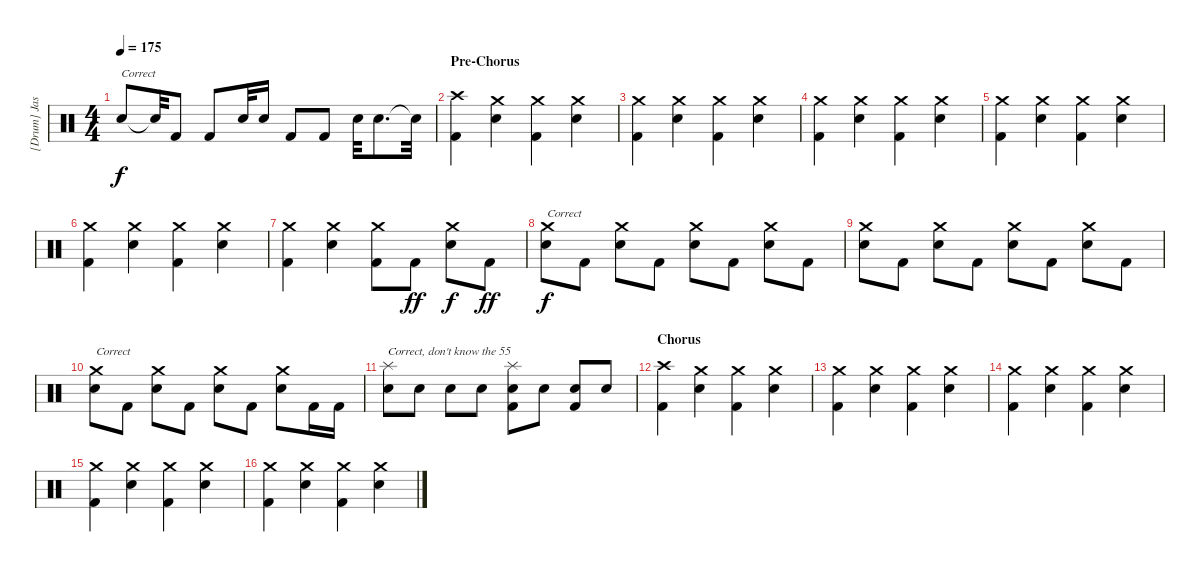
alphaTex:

\track ("[Drum] Jason \"Shakes\" West" "[Drum] Jas") {instrument percussion}
\staff {score}
\articulation defaults
\ts (4 4)
\tempo 175
\clef neutral
\ks c "Electric Snare (hit)".8{txt "Correct" dy f} "Electric Snare (hit)"{t}.32 "Kick (hit) 2".8 "Kick (hit) 2".8 "Electric Snare (hit)".32 "Electric Snare (hit)".16 "Kick (hit) 2".8 "Kick (hit) 2".8 "Electric Snare (hit)".32 "Electric Snare (hit)".8{d} "Electric Snare (hit)"{t}.32
|
\section ("" "Pre-Chorus")
("Crash high (hit)" "Kick (hit) 2").4 ("Crash medium (hit)" "Electric Snare (hit)").4 ("Crash medium (hit)" "Kick (hit) 2").4 ("Crash medium (hit)" "Electric Snare (hit)").4 |
("Crash medium (hit)" "Kick (hit) 2").4 ("Crash medium (hit)" "Electric Snare (hit)").4 ("Crash medium (hit)" "Kick (hit) 2").4 ("Crash medium (hit)" "Electric Snare (hit)").4 |
("Crash medium (hit)" "Kick (hit) 2").4 ("Crash medium (hit)" "Electric Snare (hit)").4 ("Crash medium (hit)" "Kick (hit) 2").4 ("Crash medium (hit)" "Electric Snare (hit)").4 |
("Crash medium (hit)" "Kick (hit) 2").4 ("Crash medium (hit)" "Electric Snare (hit)").4 ("Crash medium (hit)" "Kick (hit) 2").4 ("Crash medium (hit)" "Electric Snare (hit)").4 |
("Crash medium (hit)" "Kick (hit) 2").4 ("Crash medium (hit)" "Electric Snare (hit)").4 ("Crash medium (hit)" "Kick (hit) 2").4 ("Crash medium (hit)" "Electric Snare (hit)").4 |
("Crash medium (hit)" "Kick (hit) 2").4 ("Crash medium (hit)" "Electric Snare (hit)").4 ("Crash medium (hit)" "Kick (hit) 2").8 "Kick (hit) 2".8{dy ff} ("Crash medium (hit)" "Electric Snare (hit)").8{dy f} "Kick (hit) 2".8{dy ff} |
("Crash medium (hit)" "Electric Snare (hit)").8{txt "Correct" dy f} "Kick (hit) 2".8 ("Crash medium (hit)" "Electric Snare (hit)").8 "Kick (hit) 2".8 ("Crash medium (hit)" "Electric Snare (hit)").8 "Kick (hit) 2".8 ("Crash medium (hit)" "Electric Snare (hit)").8 "Kick (hit) 2".8 |
("Crash medium (hit)" "Electric Snare (hit)").8 "Kick (hit) 2".8 ("Crash medium (hit)" "Electric Snare (hit)").8 "Kick (hit) 2".8 ("Crash medium (hit)" "Electric Snare (hit)").8 "Kick (hit) 2".8 ("Crash medium (hit)" "Electric Snare (hit)").8 "Kick (hit) 2".8 |
("Crash medium (hit)" "Electric Snare (hit)").8{txt "Correct"} "Kick (hit) 2".8 ("Crash medium (hit)" "Electric Snare (hit)").8 "Kick (hit) 2".8 ("Crash medium (hit)" "Electric Snare (hit)").8 "Kick (hit) 2".8 ("Crash medium (hit)" "Electric Snare (hit)").8 "Kick (hit) 2".16 "Kick (hit) 2".16 |
("Splash (hit)" "Electric Snare (hit)").8{txt "Correct, don't know the 55"} "Electric Snare (hit)".8 "Electric Snare (hit)".8 "Electric Snare (hit)".8 ("Splash (hit)" "Electric Snare (hit)" "Kick (hit) 2").8 "Electric Snare (hit)".8 ("Electric Snare (hit)" "Kick (hit) 2").8 "Electric Snare (hit)".8 |
\section ("" "Chorus")
("Crash high (hit)" "Kick (hit) 2").4 ("Crash medium (hit)" "Electric Snare (hit)").4 ("Crash medium (hit)" "Kick (hit) 2").4 ("Crash medium (hit)" "Electric Snare (hit)").4 |
("Crash medium (hit)" "Kick (hit) 2").4 ("Crash medium (hit)" "Electric Snare (hit)").4 ("Crash medium (hit)" "Kick (hit) 2").4 ("Crash medium (hit)" "Electric Snare (hit)").4 |
("Crash medium (hit)" "Kick (hit) 2").4 ("Crash medium (hit)" "Electric Snare (hit)").4 ("Crash medium (hit)" "Kick (hit) 2").4 ("Crash medium (hit)" "Electric Snare (hit)").4 |
("Crash medium (hit)" "Kick (hit) 2").4 ("Crash medium (hit)" "Electric Snare (hit)").4 ("Crash medium (hit)" "Kick (hit) 2").4 ("Crash medium (hit)" "Electric Snare (hit)").4 |
("Crash medium (hit)" "Kick (hit) 2").4 ("Crash medium (hit)" "Electric Snare (hit)").4 ("Crash medium (hit)" "Kick (hit) 2").4 ("Crash medium (hit)" "Electric Snare (hit)").4
